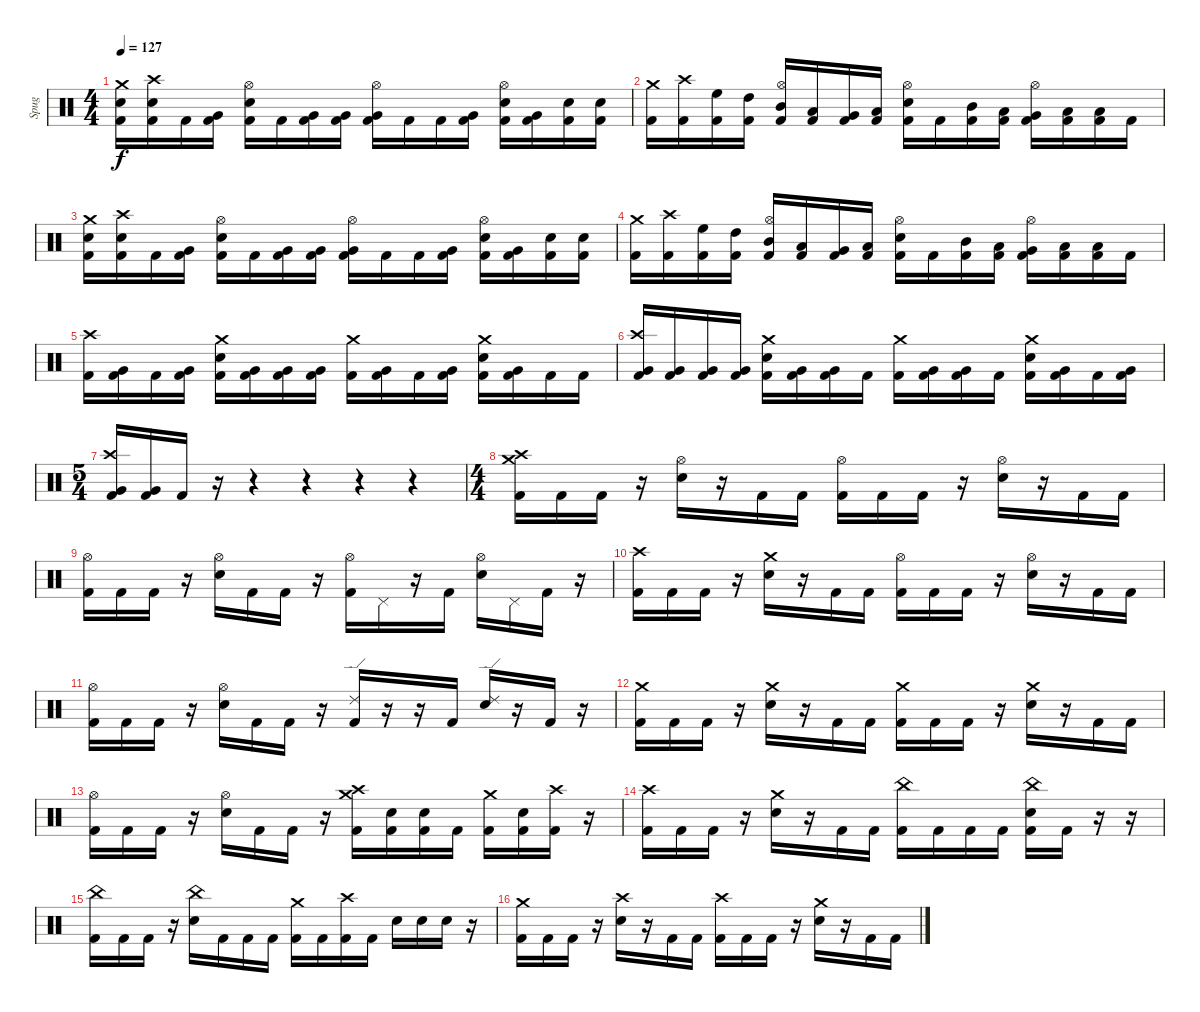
\track ("Spug" "Spug") {instrument percussion}
\staff {score}
\articulation defaults
\ts (4 4)
\tempo 127
\clef neutral
\ks c
("Crash medium (hit)" "Electric Snare (hit)" "Kick (hit) 2").16{dy f} ("Crash high (hit)" "Electric Snare (hit)" "Kick (hit) 2").16 "Kick (hit) 2".16 ("Very Low Tom (hit)" "Kick (hit) 2").16 ("Hi-Hat (open)" "Electric Snare (hit)" "Kick (hit) 2").16 "Kick (hit) 2".16 ("Very Low Tom (hit)" "Kick (hit) 2").16 ("Very Low Tom (hit)" "Kick (hit) 2").16 ("Hi-Hat (open)" "Very Low Tom (hit)" "Kick (hit) 2").16 "Kick (hit) 2".16 "Kick (hit) 2".16 ("Very Low Tom (hit)" "Kick (hit) 2").16 ("Hi-Hat (open)" "Electric Snare (hit)" "Kick (hit) 2").16 ("Very Low Tom (hit)" "Kick (hit) 2").16 ("Electric Snare (hit)" "Kick (hit) 2").16 ("Electric Snare (hit)" "Kick (hit) 2").16 |
("Crash medium (hit)" "Kick (hit) 2").16 ("Crash high (hit)" "Kick (hit) 2").16 ("High Floor Tom (hit)" "Kick (hit) 2").16 ("High Tom (hit)" "Kick (hit) 2").16 ("Hi-Hat (open)" "Mid Tom (hit)" "Kick (hit) 2").16 ("Low Tom (hit)" "Kick (hit) 2").16 ("Very Low Tom (hit)" "Kick (hit) 2").16 ("Low Floor Tom (hit)" "Kick (hit) 2").16 ("Hi-Hat (open)" "Electric Snare (hit)" "Kick (hit) 2").16 "Kick (hit) 2".16 ("Mid Tom (hit)" "Kick (hit) 2").16 ("Low Tom (hit)" "Kick (hit) 2").16 ("Hi-Hat (open)" "Very Low Tom (hit)" "Kick (hit) 2").16 ("Low Floor Tom (hit)" "Kick (hit) 2").16 ("Low Floor Tom (hit)" "Kick (hit) 2").16 "Kick (hit) 2".16 |
("Crash medium (hit)" "Electric Snare (hit)" "Kick (hit) 2").16 ("Crash high (hit)" "Electric Snare (hit)" "Kick (hit) 2").16 "Kick (hit) 2".16 ("Very Low Tom (hit)" "Kick (hit) 2").16 ("Hi-Hat (open)" "Electric Snare (hit)" "Kick (hit) 2").16 "Kick (hit) 2".16 ("Very Low Tom (hit)" "Kick (hit) 2").16 ("Very Low Tom (hit)" "Kick (hit) 2").16 ("Hi-Hat (open)" "Very Low Tom (hit)" "Kick (hit) 2").16 "Kick (hit) 2".16 "Kick (hit) 2".16 ("Very Low Tom (hit)" "Kick (hit) 2").16 ("Hi-Hat (open)" "Electric Snare (hit)" "Kick (hit) 2").16 ("Very Low Tom (hit)" "Kick (hit) 2").16 ("Electric Snare (hit)" "Kick (hit) 2").16 ("Electric Snare (hit)" "Kick (hit) 2").16 |
("Crash medium (hit)" "Kick (hit) 2").16 ("Crash high (hit)" "Kick (hit) 2").16 ("High Floor Tom (hit)" "Kick (hit) 2").16 ("High Tom (hit)" "Kick (hit) 2").16 ("Hi-Hat (open)" "Mid Tom (hit)" "Kick (hit) 2").16 ("Low Tom (hit)" "Kick (hit) 2").16 ("Very Low Tom (hit)" "Kick (hit) 2").16 ("Low Floor Tom (hit)" "Kick (hit) 2").16 ("Hi-Hat (open)" "Electric Snare (hit)" "Kick (hit) 2").16 "Kick (hit) 2".16 ("Mid Tom (hit)" "Kick (hit) 2").16 ("Low Tom (hit)" "Kick (hit) 2").16 ("Hi-Hat (open)" "Very Low Tom (hit)" "Kick (hit) 2").16 ("Low Floor Tom (hit)" "Kick (hit) 2").16 ("Low Floor Tom (hit)" "Kick (hit) 2").16 "Kick (hit) 2".16 |
("Crash high (hit)" "Kick (hit) 2").16 ("Very Low Tom (hit)" "Kick (hit) 2").16 "Kick (hit) 2".16 ("Very Low Tom (hit)" "Kick (hit) 2").16 ("Crash medium (hit)" "Electric Snare (hit)" "Kick (hit) 2").16 ("Very Low Tom (hit)" "Kick (hit) 2").16 ("Very Low Tom (hit)" "Kick (hit) 2").16 ("Very Low Tom (hit)" "Kick (hit) 2").16 ("Crash medium (hit)" "Kick (hit) 2").16 ("Very Low Tom (hit)" "Kick (hit) 2").16 "Kick (hit) 2".16 ("Very Low Tom (hit)" "Kick (hit) 2").16 ("Crash medium (hit)" "Electric Snare (hit)" "Kick (hit) 2").16 ("Very Low Tom (hit)" "Kick (hit) 2").16 "Kick (hit) 2".16 "Kick (hit) 2".16 |
("Crash high (hit)" "Very Low Tom (hit)" "Kick (hit) 2").16 ("Very Low Tom (hit)" "Kick (hit) 2").16 ("Very Low Tom (hit)" "Kick (hit) 2").16 ("Very Low Tom (hit)" "Kick (hit) 2").16 ("Crash medium (hit)" "Electric Snare (hit)" "Kick (hit) 2").16 ("Very Low Tom (hit)" "Kick (hit) 2").16 ("Very Low Tom (hit)" "Kick (hit) 2").16 "Kick (hit) 2".16 ("Crash medium (hit)" "Kick (hit) 2").16 ("Very Low Tom (hit)" "Kick (hit) 2").16 ("Very Low Tom (hit)" "Kick (hit) 2").16 "Kick (hit) 2".16 ("Crash medium (hit)" "Electric Snare (hit)" "Kick (hit) 2").16 ("Very Low Tom (hit)" "Kick (hit) 2").16 "Kick (hit) 2".16 ("Very Low Tom (hit)" "Kick (hit) 2").16 |
\ts (5 4)
("Crash high (hit)" "Very Low Tom (hit)" "Kick (hit) 2").16 ("Very Low Tom (hit)" "Kick (hit) 2").16 "Kick (hit) 2".16 r.16 r.4 r.4 r.4 r.4 |
\ts (4 4)
("Crash medium (hit)" "Crash high (hit)" "Kick (hit) 2").16 "Kick (hit) 2".16 "Kick (hit) 2".16 r.16 ("Hi-Hat (open)" "Electric Snare (hit)").16 r.16 "Kick (hit) 2".16 "Kick (hit) 2".16 ("Hi-Hat (open)" "Kick (hit) 2").16 "Kick (hit) 2".16 "Kick (hit) 2".16 r.16 ("Hi-Hat (open)" "Electric Snare (hit)").16 r.16 "Kick (hit) 2".16 "Kick (hit) 2".16 |
("Hi-Hat (open)" "Kick (hit) 2").16 "Kick (hit) 2".16 "Kick (hit) 2".16 r.16 ("Hi-Hat (open)" "Electric Snare (hit)").16 "Kick (hit) 2".16 "Kick (hit) 2".16 r.16 ("Hi-Hat (open)" "Kick (hit) 2").16 "Pedal Hi-Hat (hit)".16 r.16 "Kick (hit) 2".16 ("Hi-Hat (open)" "Electric Snare (hit)").16 "Pedal Hi-Hat (hit)".16 "Kick (hit) 2".16 r.16 |
("Crash high (hit)" "Kick (hit) 2").16 "Kick (hit) 2".16 "Kick (hit) 2".16 r.16 ("Crash medium (hit)" "Electric Snare (hit)").16 r.16 "Kick (hit) 2".16 "Kick (hit) 2".16 ("Hi-Hat (open)" "Kick (hit) 2").16 "Kick (hit) 2".16 "Kick (hit) 2".16 r.16 ("Hi-Hat (open)" "Electric Snare (hit)").16 r.16 "Kick (hit) 2".16 "Kick (hit) 2".16 |
("Hi-Hat (open)" "Kick (hit) 2").16 "Kick (hit) 2".16 "Kick (hit) 2".16 r.16 ("Hi-Hat (open)" "Electric Snare (hit)").16 "Kick (hit) 2".16 "Kick (hit) 2".16 r.16 ("Ride (edge) 2" "Kick (hit) 2").16 r.16 r.16 "Kick (hit) 2".16 ("Ride (edge) 2" "Electric Snare (hit)").16 r.16 "Kick (hit) 2".16 r.16 |
("Crash medium (hit)" "Kick (hit) 2").16 "Kick (hit) 2".16 "Kick (hit) 2".16 r.16 ("Crash medium (hit)" "Electric Snare (hit)").16 r.16 "Kick (hit) 2".16 "Kick (hit) 2".16 ("Crash medium (hit)" "Kick (hit) 2").16 "Kick (hit) 2".16 "Kick (hit) 2".16 r.16 ("Crash medium (hit)" "Electric Snare (hit)").16 r.16 "Kick (hit) 2".16 "Kick (hit) 2".16 |
("Hi-Hat (open)" "Kick (hit) 2").16 "Kick (hit) 2".16 "Kick (hit) 2".16 r.16 ("Hi-Hat (open)" "Electric Snare (hit)").16 "Kick (hit) 2".16 "Kick (hit) 2".16 r.16 ("Crash high (hit)" "Crash medium (hit)" "Kick (hit) 2").16 ("Electric Snare (hit)" "Kick (hit) 2").16 ("Electric Snare (hit)" "Kick (hit) 2").16 "Kick (hit) 2".16 ("Crash medium (hit)" "Kick (hit) 2").16 ("Electric Snare (hit)" "Kick (hit) 2").16 ("Crash high (hit)" "Kick (hit) 2").16 r.16 |
("Crash high (hit)" "Kick (hit) 2").16 "Kick (hit) 2".16 "Kick (hit) 2".16 r.16 ("Crash medium (hit)" "Electric Snare (hit)").16 r.16 "Kick (hit) 2".16 "Kick (hit) 2".16 ("China (hit)" "Kick (hit) 2").16 "Kick (hit) 2".16 "Kick (hit) 2".16 "Kick (hit) 2".16 ("China (hit)" "Electric Snare (hit)" "Kick (hit) 2").16 "Kick (hit) 2".16 r.16 r.16 |
("China (hit)" "Kick (hit) 2").16 "Kick (hit) 2".16 "Kick (hit) 2".16 r.16 ("China (hit)" "Electric Snare (hit)").16 "Kick (hit) 2".16 "Kick (hit) 2".16 "Kick (hit) 2".16 ("Crash medium (hit)" "Kick (hit) 2").16 "Kick (hit) 2".16 ("Crash high (hit)" "Kick (hit) 2").16 "Kick (hit) 2".16 "Electric Snare (hit)".16 "Electric Snare (hit)".16 "Electric Snare (hit)".16 r.16 |
("Crash medium (hit)" "Kick (hit) 2").16 "Kick (hit) 2".16 "Kick (hit) 2".16 r.16 ("Crash high (hit)" "Electric Snare (hit)").16 r.16 "Kick (hit) 2".16 "Kick (hit) 2".16 ("Crash high (hit)" "Kick (hit) 2").16 "Kick (hit) 2".16 "Kick (hit) 2".16 r.16 ("Crash medium (hit)" "Electric Snare (hit)").16 r.16 "Kick (hit) 2".16 "Kick (hit) 2".16
